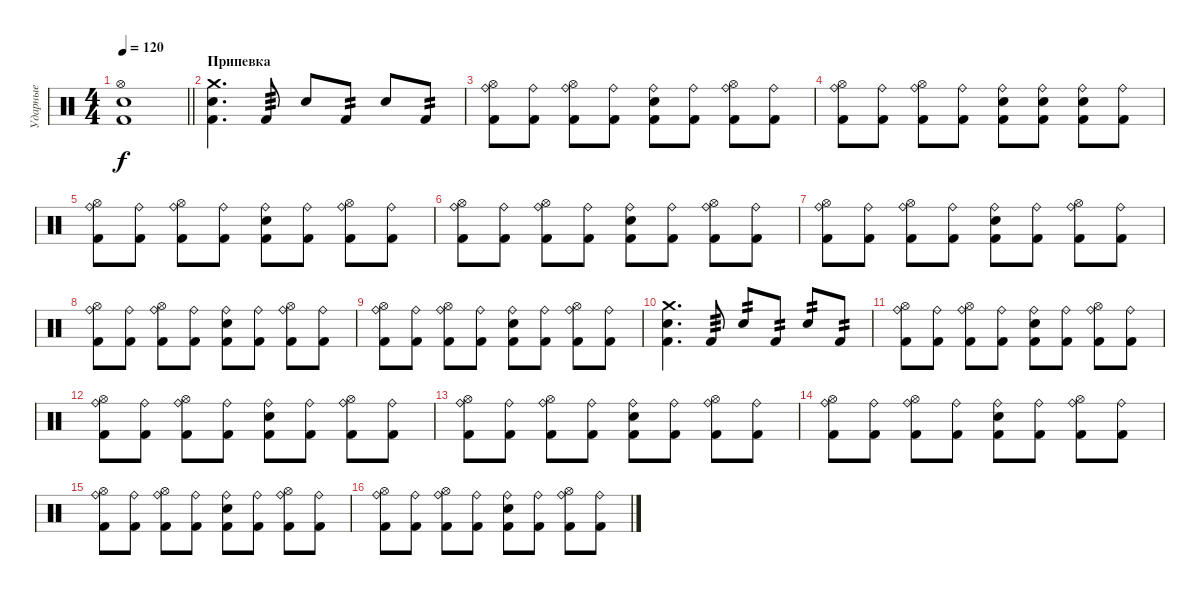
\track ("Ударные" "Ударные") {instrument percussion}
\staff {score}
\articulation defaults
\ts (4 4)
\tempo 120
\clef neutral
\barLineRight lightlight
\ks c
("Kick (hit) 2" "Snare (hit) 2" "Hi-Hat (open)").1{dy f} |
\section ("" "Припевка")
("Kick (hit) 2" "Snare (hit) 2" "Crash medium (hit)").4{d} "Kick (hit) 2".8{tp 3} "Snare (hit) 2".8 "Kick (hit) 2".8{tp 2} "Snare (hit) 2".8 "Kick (hit) 2".8{tp 2} |
("Kick (hit) 2" "Ride (bell)" "Hi-Hat (open)").8 ("Kick (hit) 2" "Ride (bell)").8 ("Kick (hit) 2" "Ride (bell)" "Hi-Hat (open)").8 ("Kick (hit) 2" "Ride (bell)").8 ("Kick (hit) 2" "Ride (bell)" "Snare (hit) 2").8 ("Kick (hit) 2" "Ride (bell)").8 ("Kick (hit) 2" "Ride (bell)" "Hi-Hat (open)").8 ("Kick (hit) 2" "Ride (bell)").8 |
("Kick (hit) 2" "Ride (bell)" "Hi-Hat (open)").8 ("Kick (hit) 2" "Ride (bell)").8 ("Kick (hit) 2" "Ride (bell)" "Hi-Hat (open)").8 ("Kick (hit) 2" "Ride (bell)").8 ("Kick (hit) 2" "Ride (bell)" "Snare (hit) 2").8 ("Kick (hit) 2" "Ride (bell)" "Snare (hit) 2").8 ("Kick (hit) 2" "Ride (bell)" "Snare (hit) 2").8 ("Kick (hit) 2" "Ride (bell)").8 |
("Kick (hit) 2" "Ride (bell)" "Hi-Hat (open)").8 ("Kick (hit) 2" "Ride (bell)").8 ("Kick (hit) 2" "Ride (bell)" "Hi-Hat (open)").8 ("Kick (hit) 2" "Ride (bell)").8 ("Kick (hit) 2" "Ride (bell)" "Snare (hit) 2").8 ("Kick (hit) 2" "Ride (bell)").8 ("Kick (hit) 2" "Ride (bell)" "Hi-Hat (open)").8 ("Kick (hit) 2" "Ride (bell)").8 |
("Kick (hit) 2" "Ride (bell)" "Hi-Hat (open)").8 ("Kick (hit) 2" "Ride (bell)").8 ("Kick (hit) 2" "Ride (bell)" "Hi-Hat (open)").8 ("Kick (hit) 2" "Ride (bell)").8 ("Kick (hit) 2" "Ride (bell)" "Snare (hit) 2").8 ("Kick (hit) 2" "Ride (bell)").8 ("Kick (hit) 2" "Ride (bell)" "Hi-Hat (open)").8 ("Kick (hit) 2" "Ride (bell)").8 |
("Kick (hit) 2" "Ride (bell)" "Hi-Hat (open)").8 ("Kick (hit) 2" "Ride (bell)").8 ("Kick (hit) 2" "Ride (bell)" "Hi-Hat (open)").8 ("Kick (hit) 2" "Ride (bell)").8 ("Kick (hit) 2" "Ride (bell)" "Snare (hit) 2").8 ("Kick (hit) 2" "Ride (bell)").8 ("Kick (hit) 2" "Ride (bell)" "Hi-Hat (open)").8 ("Kick (hit) 2" "Ride (bell)").8 |
("Kick (hit) 2" "Ride (bell)" "Hi-Hat (open)").8 ("Kick (hit) 2" "Ride (bell)").8 ("Kick (hit) 2" "Ride (bell)" "Hi-Hat (open)").8 ("Kick (hit) 2" "Ride (bell)").8 ("Kick (hit) 2" "Ride (bell)" "Snare (hit) 2").8 ("Kick (hit) 2" "Ride (bell)").8 ("Kick (hit) 2" "Ride (bell)" "Hi-Hat (open)").8 ("Kick (hit) 2" "Ride (bell)").8 |
("Kick (hit) 2" "Ride (bell)" "Hi-Hat (open)").8 ("Kick (hit) 2" "Ride (bell)").8 ("Kick (hit) 2" "Ride (bell)" "Hi-Hat (open)").8 ("Kick (hit) 2" "Ride (bell)").8 ("Kick (hit) 2" "Ride (bell)" "Snare (hit) 2").8 ("Kick (hit) 2" "Ride (bell)").8 ("Kick (hit) 2" "Ride (bell)" "Hi-Hat (open)").8 ("Kick (hit) 2" "Ride (bell)").8 |
("Kick (hit) 2" "Snare (hit) 2" "Crash medium (hit)").4{d} "Kick (hit) 2".8{tp 3} "Snare (hit) 2".8{tp 2} "Kick (hit) 2".8{tp 2} "Snare (hit) 2".8{tp 2} "Kick (hit) 2".8{tp 2} |
("Kick (hit) 2" "Ride (bell)" "Hi-Hat (open)").8 ("Kick (hit) 2" "Ride (bell)").8 ("Kick (hit) 2" "Ride (bell)" "Hi-Hat (open)").8 ("Kick (hit) 2" "Ride (bell)").8 ("Kick (hit) 2" "Ride (bell)" "Snare (hit) 2").8 ("Kick (hit) 2" "Ride (bell)").8 ("Kick (hit) 2" "Ride (bell)" "Hi-Hat (open)").8 ("Kick (hit) 2" "Ride (bell)").8 |
("Kick (hit) 2" "Ride (bell)" "Hi-Hat (open)").8 ("Kick (hit) 2" "Ride (bell)").8 ("Kick (hit) 2" "Ride (bell)" "Hi-Hat (open)").8 ("Kick (hit) 2" "Ride (bell)").8 ("Kick (hit) 2" "Ride (bell)" "Snare (hit) 2").8 ("Kick (hit) 2" "Ride (bell)").8 ("Kick (hit) 2" "Ride (bell)" "Hi-Hat (open)").8 ("Kick (hit) 2" "Ride (bell)").8 |
("Kick (hit) 2" "Ride (bell)" "Hi-Hat (open)").8 ("Kick (hit) 2" "Ride (bell)").8 ("Kick (hit) 2" "Ride (bell)" "Hi-Hat (open)").8 ("Kick (hit) 2" "Ride (bell)").8 ("Kick (hit) 2" "Ride (bell)" "Snare (hit) 2").8 ("Kick (hit) 2" "Ride (bell)").8 ("Kick (hit) 2" "Ride (bell)" "Hi-Hat (open)").8 ("Kick (hit) 2" "Ride (bell)").8 |
("Kick (hit) 2" "Ride (bell)" "Hi-Hat (open)").8 ("Kick (hit) 2" "Ride (bell)").8 ("Kick (hit) 2" "Ride (bell)" "Hi-Hat (open)").8 ("Kick (hit) 2" "Ride (bell)").8 ("Kick (hit) 2" "Ride (bell)" "Snare (hit) 2").8 ("Kick (hit) 2" "Ride (bell)").8 ("Kick (hit) 2" "Ride (bell)" "Hi-Hat (open)").8 ("Kick (hit) 2" "Ride (bell)").8 |
("Kick (hit) 2" "Ride (bell)" "Hi-Hat (open)").8 ("Kick (hit) 2" "Ride (bell)").8 ("Kick (hit) 2" "Ride (bell)" "Hi-Hat (open)").8 ("Kick (hit) 2" "Ride (bell)").8 ("Kick (hit) 2" "Ride (bell)" "Snare (hit) 2").8 ("Kick (hit) 2" "Ride (bell)").8 ("Kick (hit) 2" "Ride (bell)" "Hi-Hat (open)").8 ("Kick (hit) 2" "Ride (bell)").8 |
("Kick (hit) 2" "Ride (bell)" "Hi-Hat (open)").8 ("Kick (hit) 2" "Ride (bell)").8 ("Kick (hit) 2" "Ride (bell)" "Hi-Hat (open)").8 ("Kick (hit) 2" "Ride (bell)").8 ("Kick (hit) 2" "Ride (bell)" "Snare (hit) 2").8 ("Kick (hit) 2" "Ride (bell)").8 ("Kick (hit) 2" "Ride (bell)" "Hi-Hat (open)").8 ("Kick (hit) 2" "Ride (bell)").8
